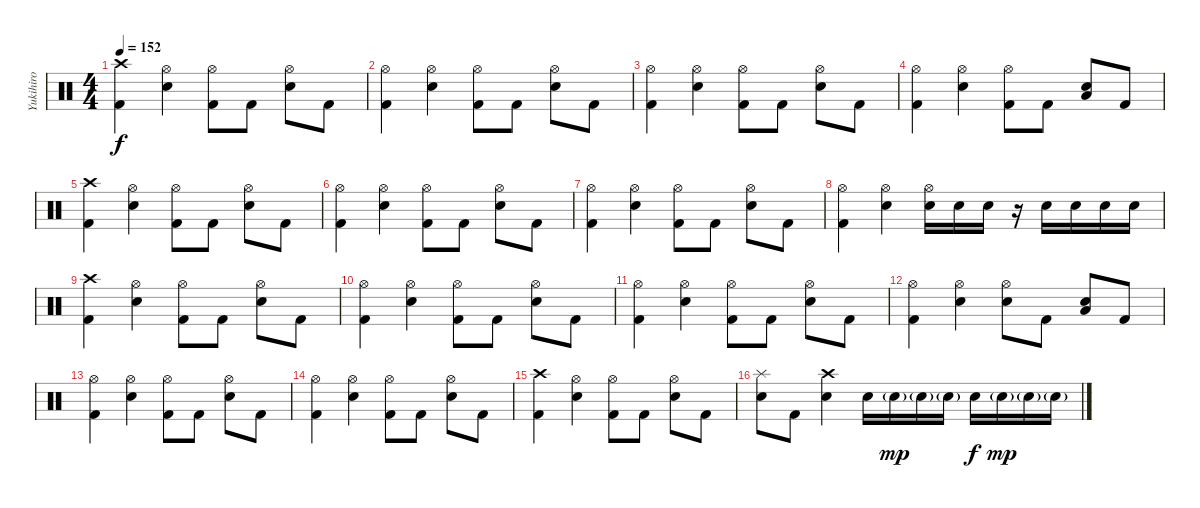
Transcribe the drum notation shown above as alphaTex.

\track ("Yukihiro" "Yukihiro") {instrument percussion}
\staff {score}
\articulation defaults
\ts (4 4)
\tempo 152
\clef neutral
\ks c
("Crash high (hit)" "Kick (hit) 2").4{dy f} ("Hi-Hat (open)" "Electric Snare (hit)").4 ("Hi-Hat (open)" "Kick (hit) 2").8 "Kick (hit) 2".8 ("Hi-Hat (open)" "Electric Snare (hit)").8 "Kick (hit) 2".8 |
("Hi-Hat (open)" "Kick (hit) 2").4 ("Hi-Hat (open)" "Electric Snare (hit)").4 ("Hi-Hat (open)" "Kick (hit) 2").8 "Kick (hit) 2".8 ("Hi-Hat (open)" "Electric Snare (hit)").8 "Kick (hit) 2".8 |
("Hi-Hat (open)" "Kick (hit) 2").4 ("Hi-Hat (open)" "Electric Snare (hit)").4 ("Hi-Hat (open)" "Kick (hit) 2").8 "Kick (hit) 2".8 ("Hi-Hat (open)" "Electric Snare (hit)").8 "Kick (hit) 2".8 |
("Hi-Hat (open)" "Kick (hit) 2").4 ("Hi-Hat (open)" "Electric Snare (hit)").4 ("Hi-Hat (open)" "Kick (hit) 2").8 "Kick (hit) 2".8 ("Low Tom (hit)" "Electric Snare (hit)").8 "Kick (hit) 2".8 |
("Crash high (hit)" "Kick (hit) 2").4 ("Hi-Hat (open)" "Electric Snare (hit)").4 ("Hi-Hat (open)" "Kick (hit) 2").8 "Kick (hit) 2".8 ("Hi-Hat (open)" "Electric Snare (hit)").8 "Kick (hit) 2".8 |
("Hi-Hat (open)" "Kick (hit) 2").4 ("Hi-Hat (open)" "Electric Snare (hit)").4 ("Hi-Hat (open)" "Kick (hit) 2").8 "Kick (hit) 2".8 ("Hi-Hat (open)" "Electric Snare (hit)").8 "Kick (hit) 2".8 |
("Hi-Hat (open)" "Kick (hit) 2").4 ("Hi-Hat (open)" "Electric Snare (hit)").4 ("Hi-Hat (open)" "Kick (hit) 2").8 "Kick (hit) 2".8 ("Hi-Hat (open)" "Electric Snare (hit)").8 "Kick (hit) 2".8 |
("Hi-Hat (open)" "Kick (hit) 2").4 ("Hi-Hat (open)" "Electric Snare (hit)").4 ("Hi-Hat (open)" "Electric Snare (hit)").16 "Electric Snare (hit)".16 "Electric Snare (hit)".16 r.16 "Electric Snare (hit)".16 "Electric Snare (hit)".16 "Electric Snare (hit)".16 "Electric Snare (hit)".16 |
("Crash high (hit)" "Kick (hit) 2").4 ("Hi-Hat (open)" "Electric Snare (hit)").4 ("Hi-Hat (open)" "Kick (hit) 2").8 "Kick (hit) 2".8 ("Hi-Hat (open)" "Electric Snare (hit)").8 "Kick (hit) 2".8 |
("Hi-Hat (open)" "Kick (hit) 2").4 ("Hi-Hat (open)" "Electric Snare (hit)").4 ("Hi-Hat (open)" "Kick (hit) 2").8 "Kick (hit) 2".8 ("Hi-Hat (open)" "Electric Snare (hit)").8 "Kick (hit) 2".8 |
("Hi-Hat (open)" "Kick (hit) 2").4 ("Hi-Hat (open)" "Electric Snare (hit)").4 ("Hi-Hat (open)" "Kick (hit) 2").8 "Kick (hit) 2".8 ("Hi-Hat (open)" "Electric Snare (hit)").8 "Kick (hit) 2".8 |
("Hi-Hat (open)" "Kick (hit) 2").4 ("Hi-Hat (open)" "Electric Snare (hit)").4 ("Hi-Hat (open)" "Electric Snare (hit)").8 "Kick (hit) 2".8 ("Low Tom (hit)" "Electric Snare (hit)").8 "Kick (hit) 2".8 |
("Hi-Hat (open)" "Kick (hit) 2").4 ("Hi-Hat (open)" "Electric Snare (hit)").4 ("Hi-Hat (open)" "Kick (hit) 2").8 "Kick (hit) 2".8 ("Hi-Hat (open)" "Electric Snare (hit)").8 "Kick (hit) 2".8 |
("Hi-Hat (open)" "Kick (hit) 2").4 ("Hi-Hat (open)" "Electric Snare (hit)").4 ("Hi-Hat (open)" "Kick (hit) 2").8 "Kick (hit) 2".8 ("Hi-Hat (open)" "Electric Snare (hit)").8 "Kick (hit) 2".8 |
("Crash high (hit)" "Kick (hit) 2").4 ("Hi-Hat (open)" "Electric Snare (hit)").4 ("Hi-Hat (open)" "Kick (hit) 2").8 "Kick (hit) 2".8 ("Hi-Hat (open)" "Electric Snare (hit)").8 "Kick (hit) 2".8 |
("Splash (hit)" "Electric Snare (hit)").8 "Kick (hit) 2".8 ("Crash high (hit)" "Electric Snare (hit)").4 "Electric Snare (hit)".16 "Electric Snare (hit)"{g}.16{dy mp} "Electric Snare (hit)"{g}.16 "Electric Snare (hit)"{g}.16 "Electric Snare (hit)".16{dy f} "Electric Snare (hit)"{g}.16{dy mp} "Electric Snare (hit)"{g}.16 "Electric Snare (hit)"{g}.16
